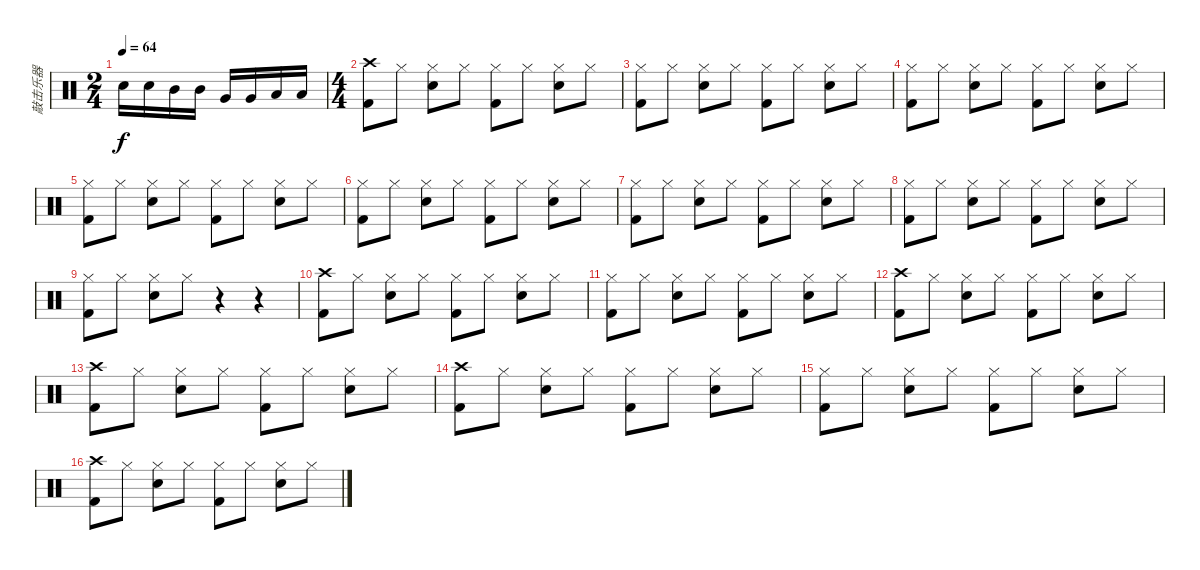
\track ("敲击乐器" "敲击乐器") {instrument percussion}
\staff {score}
\articulation defaults
\ts (2 4)
\tempo 64
\clef neutral
\ks c "Snare (hit) 2".16{dy f} "Snare (hit) 2".16 "Mid Tom (hit)".16 "Mid Tom (hit)".16 "Very Low Tom (hit)".16 "Very Low Tom (hit)".16 "Low Floor Tom (hit)".16 "Low Floor Tom (hit)".16
|
\ts (4 4)
("Kick (hit) 2" "Crash high (hit)").8 "Hi-Hat (closed)".8 ("Snare (hit) 2" "Hi-Hat (closed)").8 "Hi-Hat (closed)".8 ("Kick (hit) 2" "Hi-Hat (closed)").8 "Hi-Hat (closed)".8 ("Snare (hit) 2" "Hi-Hat (closed)").8 "Hi-Hat (closed)".8 |
("Kick (hit) 2" "Hi-Hat (closed)").8 "Hi-Hat (closed)".8 ("Snare (hit) 2" "Hi-Hat (closed)").8 "Hi-Hat (closed)".8 ("Kick (hit) 2" "Hi-Hat (closed)").8 "Hi-Hat (closed)".8 ("Snare (hit) 2" "Hi-Hat (closed)").8 "Hi-Hat (closed)".8 |
("Kick (hit) 2" "Hi-Hat (closed)").8 "Hi-Hat (closed)".8 ("Snare (hit) 2" "Hi-Hat (closed)").8 "Hi-Hat (closed)".8 ("Kick (hit) 2" "Hi-Hat (closed)").8 "Hi-Hat (closed)".8 ("Snare (hit) 2" "Hi-Hat (closed)").8 "Hi-Hat (closed)".8 |
("Kick (hit) 2" "Hi-Hat (closed)").8 "Hi-Hat (closed)".8 ("Snare (hit) 2" "Hi-Hat (closed)").8 "Hi-Hat (closed)".8 ("Kick (hit) 2" "Hi-Hat (closed)").8 "Hi-Hat (closed)".8 ("Snare (hit) 2" "Hi-Hat (closed)").8 "Hi-Hat (closed)".8 |
("Kick (hit) 2" "Hi-Hat (closed)").8 "Hi-Hat (closed)".8 ("Snare (hit) 2" "Hi-Hat (closed)").8 "Hi-Hat (closed)".8 ("Kick (hit) 2" "Hi-Hat (closed)").8 "Hi-Hat (closed)".8 ("Snare (hit) 2" "Hi-Hat (closed)").8 "Hi-Hat (closed)".8 |
("Kick (hit) 2" "Hi-Hat (closed)").8 "Hi-Hat (closed)".8 ("Snare (hit) 2" "Hi-Hat (closed)").8 "Hi-Hat (closed)".8 ("Kick (hit) 2" "Hi-Hat (closed)").8 "Hi-Hat (closed)".8 ("Snare (hit) 2" "Hi-Hat (closed)").8 "Hi-Hat (closed)".8 |
("Kick (hit) 2" "Hi-Hat (closed)").8 "Hi-Hat (closed)".8 ("Snare (hit) 2" "Hi-Hat (closed)").8 "Hi-Hat (closed)".8 ("Kick (hit) 2" "Hi-Hat (closed)").8 "Hi-Hat (closed)".8 ("Snare (hit) 2" "Hi-Hat (closed)").8 "Hi-Hat (closed)".8 |
("Kick (hit) 2" "Hi-Hat (closed)").8 "Hi-Hat (closed)".8 ("Snare (hit) 2" "Hi-Hat (closed)").8 "Hi-Hat (closed)".8 r.4 r.4 |
("Kick (hit) 2" "Crash high (hit)").8 "Hi-Hat (closed)".8 ("Snare (hit) 2" "Hi-Hat (closed)").8 "Hi-Hat (closed)".8 ("Kick (hit) 2" "Hi-Hat (closed)").8 "Hi-Hat (closed)".8 ("Snare (hit) 2" "Hi-Hat (closed)").8 "Hi-Hat (closed)".8 |
("Kick (hit) 2" "Hi-Hat (closed)").8 "Hi-Hat (closed)".8 ("Snare (hit) 2" "Hi-Hat (closed)").8 "Hi-Hat (closed)".8 ("Kick (hit) 2" "Hi-Hat (closed)").8 "Hi-Hat (closed)".8 ("Snare (hit) 2" "Hi-Hat (closed)").8 "Hi-Hat (closed)".8 |
("Kick (hit) 2" "Crash high (hit)").8 "Hi-Hat (closed)".8 ("Snare (hit) 2" "Hi-Hat (closed)").8 "Hi-Hat (closed)".8 ("Kick (hit) 2" "Hi-Hat (closed)").8 "Hi-Hat (closed)".8 ("Snare (hit) 2" "Hi-Hat (closed)").8 "Hi-Hat (closed)".8 |
("Kick (hit) 2" "Crash high (hit)").8 "Hi-Hat (closed)".8 ("Snare (hit) 2" "Hi-Hat (closed)").8 "Hi-Hat (closed)".8 ("Kick (hit) 2" "Hi-Hat (closed)").8 "Hi-Hat (closed)".8 ("Snare (hit) 2" "Hi-Hat (closed)").8 "Hi-Hat (closed)".8 |
("Kick (hit) 2" "Crash high (hit)").8 "Hi-Hat (closed)".8 ("Snare (hit) 2" "Hi-Hat (closed)").8 "Hi-Hat (closed)".8 ("Kick (hit) 2" "Hi-Hat (closed)").8 "Hi-Hat (closed)".8 ("Snare (hit) 2" "Hi-Hat (closed)").8 "Hi-Hat (closed)".8 |
("Kick (hit) 2" "Hi-Hat (closed)").8 "Hi-Hat (closed)".8 ("Snare (hit) 2" "Hi-Hat (closed)").8 "Hi-Hat (closed)".8 ("Kick (hit) 2" "Hi-Hat (closed)").8 "Hi-Hat (closed)".8 ("Snare (hit) 2" "Hi-Hat (closed)").8 "Hi-Hat (closed)".8 |
("Kick (hit) 2" "Crash high (hit)").8 "Hi-Hat (closed)".8 ("Snare (hit) 2" "Hi-Hat (closed)").8 "Hi-Hat (closed)".8 ("Kick (hit) 2" "Hi-Hat (closed)").8 "Hi-Hat (closed)".8 ("Snare (hit) 2" "Hi-Hat (closed)").8 "Hi-Hat (closed)".8
